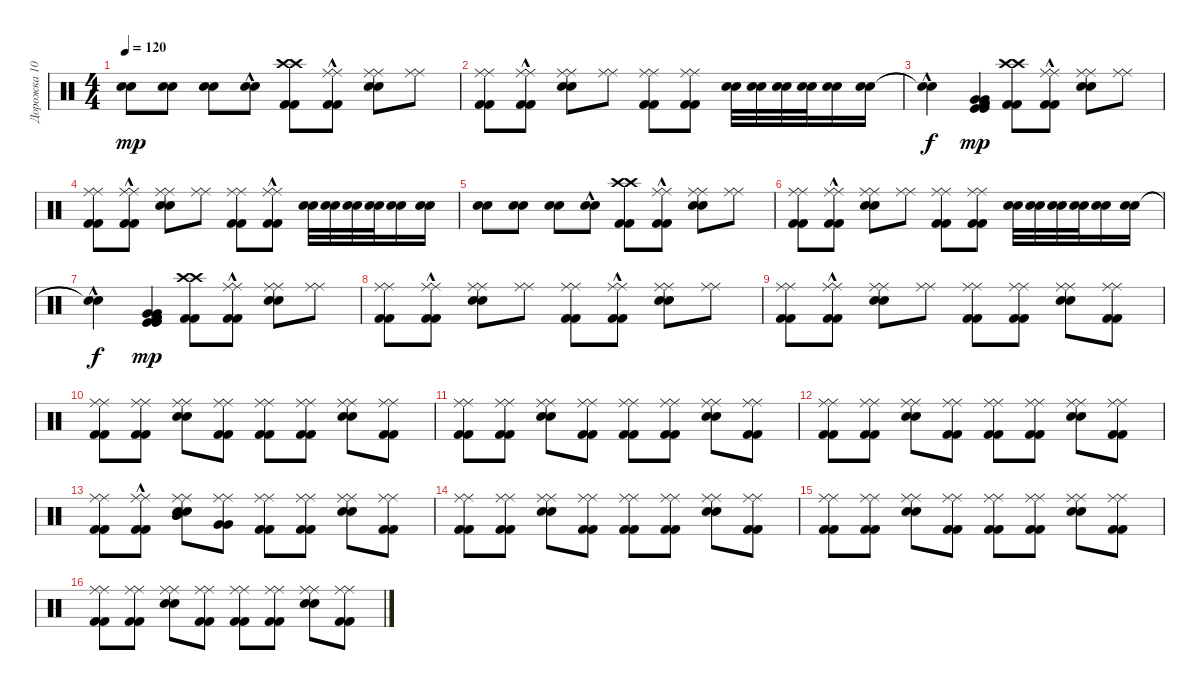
\track ("Дорожка 10" "Дорожка 10") {instrument percussion}
\staff {score}
\articulation defaults
\ts (4 4)
\tempo 120
\clef neutral
\ks c
("Snare (hit) 2" "Snare (hit) 2").8{dy mp} ("Snare (hit) 2" "Snare (hit) 2").8 ("Snare (hit) 2" "Snare (hit) 2").8 ("Snare (hit) 2"{hac} "Snare (hit) 2"{hac}).8 ("Kick (hit) 2" "Crash high (hit)" "Kick (hit) 2" "Crash high (hit)").8 ("Kick (hit) 2"{hac} "Ride (middle)" "Kick (hit) 2"{hac} "Ride (middle)").8 ("Snare (hit) 2" "Ride (middle)" "Snare (hit) 2" "Ride (middle)").8 ("Ride (middle)" "Ride (middle)").8 |
("Kick (hit) 2" "Ride (middle)" "Kick (hit) 2" "Ride (middle)").8 ("Kick (hit) 2"{hac} "Ride (middle)" "Kick (hit) 2"{hac} "Ride (middle)").8 ("Snare (hit) 2" "Ride (middle)" "Snare (hit) 2" "Ride (middle)").8 ("Ride (middle)" "Ride (middle)").8 ("Kick (hit) 2" "Ride (middle)" "Kick (hit) 2" "Ride (middle)").8 ("Kick (hit) 2" "Ride (middle)" "Kick (hit) 2" "Ride (middle)").8 ("Snare (hit) 2" "Snare (hit) 2").32 ("Snare (hit) 2" "Snare (hit) 2").32 ("Snare (hit) 2" "Snare (hit) 2").32 ("Snare (hit) 2" "Snare (hit) 2").32 ("Snare (hit) 2" "Snare (hit) 2").16 ("Snare (hit) 2" "Snare (hit) 2").16 |
("Snare (hit)"{hac t} "Snare (hit)"{hac t}).4{dy f} ("Kick (hit)" "Kick (hit) 2" "Very Low Tom (hit)" "Kick (hit)" "Kick (hit) 2" "Very Low Tom (hit)").4{dy mp} ("Kick (hit) 2" "Crash high (hit)" "Kick (hit) 2" "Crash high (hit)").8 ("Kick (hit) 2"{hac} "Ride (middle)" "Kick (hit) 2"{hac} "Ride (middle)").8 ("Snare (hit) 2" "Ride (middle)" "Snare (hit) 2" "Ride (middle)").8 ("Ride (middle)" "Ride (middle)").8 |
("Kick (hit) 2" "Ride (middle)" "Kick (hit) 2" "Ride (middle)").8 ("Kick (hit) 2"{hac} "Ride (middle)" "Kick (hit) 2"{hac} "Ride (middle)").8 ("Snare (hit) 2" "Ride (middle)" "Snare (hit) 2" "Ride (middle)").8 ("Ride (middle)" "Ride (middle)").8 ("Kick (hit) 2" "Ride (middle)" "Kick (hit) 2" "Ride (middle)").8 ("Kick (hit) 2"{hac} "Ride (middle)" "Kick (hit) 2"{hac} "Ride (middle)").8 ("Snare (hit) 2" "Snare (hit) 2").32 ("Snare (hit) 2" "Snare (hit) 2").32 ("Snare (hit) 2" "Snare (hit) 2").32 ("Snare (hit) 2" "Snare (hit) 2").32 ("Snare (hit) 2" "Snare (hit) 2").16 ("Snare (hit) 2" "Snare (hit) 2").16 |
("Snare (hit) 2" "Snare (hit) 2").8 ("Snare (hit) 2" "Snare (hit) 2").8 ("Snare (hit) 2" "Snare (hit) 2").8 ("Snare (hit) 2"{hac} "Snare (hit) 2"{hac}).8 ("Kick (hit) 2" "Crash high (hit)" "Kick (hit) 2" "Crash high (hit)").8 ("Kick (hit) 2"{hac} "Ride (middle)" "Kick (hit) 2"{hac} "Ride (middle)").8 ("Snare (hit) 2" "Ride (middle)" "Snare (hit) 2" "Ride (middle)").8 ("Ride (middle)" "Ride (middle)").8 |
("Kick (hit) 2" "Ride (middle)" "Kick (hit) 2" "Ride (middle)").8 ("Kick (hit) 2"{hac} "Ride (middle)" "Kick (hit) 2"{hac} "Ride (middle)").8 ("Snare (hit) 2" "Ride (middle)" "Snare (hit) 2" "Ride (middle)").8 ("Ride (middle)" "Ride (middle)").8 ("Kick (hit) 2" "Ride (middle)" "Kick (hit) 2" "Ride (middle)").8 ("Kick (hit) 2" "Ride (middle)" "Kick (hit) 2" "Ride (middle)").8 ("Snare (hit) 2" "Snare (hit) 2").32 ("Snare (hit) 2" "Snare (hit) 2").32 ("Snare (hit) 2" "Snare (hit) 2").32 ("Snare (hit) 2" "Snare (hit) 2").32 ("Snare (hit) 2" "Snare (hit) 2").16 ("Snare (hit) 2" "Snare (hit) 2").16 |
("Snare (hit)"{hac t} "Snare (hit)"{hac t}).4{dy f} ("Kick (hit)" "Kick (hit) 2" "Very Low Tom (hit)" "Kick (hit)" "Kick (hit) 2" "Very Low Tom (hit)").4{dy mp} ("Kick (hit) 2" "Crash high (hit)" "Kick (hit) 2" "Crash high (hit)").8 ("Kick (hit) 2"{hac} "Ride (middle)" "Kick (hit) 2"{hac} "Ride (middle)").8 ("Snare (hit) 2" "Ride (middle)" "Snare (hit) 2" "Ride (middle)").8 ("Ride (middle)" "Ride (middle)").8 |
("Kick (hit) 2" "Ride (middle)" "Kick (hit) 2" "Ride (middle)").8 ("Kick (hit) 2"{hac} "Ride (middle)" "Kick (hit) 2"{hac} "Ride (middle)").8 ("Snare (hit) 2" "Ride (middle)" "Snare (hit) 2" "Ride (middle)").8 ("Ride (middle)" "Ride (middle)").8 ("Kick (hit) 2" "Ride (middle)" "Kick (hit) 2" "Ride (middle)").8 ("Kick (hit) 2"{hac} "Ride (middle)" "Kick (hit) 2"{hac} "Ride (middle)").8 ("Snare (hit) 2" "Ride (middle)" "Snare (hit) 2" "Ride (middle)").8 ("Ride (middle)" "Ride (middle)").8 |
("Kick (hit) 2" "Ride (middle)" "Kick (hit) 2" "Ride (middle)").8 ("Kick (hit) 2"{hac} "Ride (middle)" "Kick (hit) 2"{hac} "Ride (middle)").8 ("Snare (hit) 2" "Ride (middle)" "Snare (hit) 2" "Ride (middle)").8 ("Ride (middle)" "Ride (middle)").8 ("Kick (hit) 2" "Ride (middle)" "Kick (hit) 2" "Ride (middle)").8 ("Kick (hit) 2" "Ride (middle)" "Kick (hit) 2" "Ride (middle)").8 ("Snare (hit) 2" "Ride (middle)" "Snare (hit) 2" "Ride (middle)").8 ("Kick (hit) 2" "Ride (middle)" "Kick (hit) 2" "Ride (middle)").8 |
("Kick (hit) 2" "Ride (middle)" "Kick (hit) 2" "Ride (middle)").8 ("Kick (hit) 2" "Ride (middle)" "Kick (hit) 2" "Ride (middle)").8 ("Snare (hit) 2" "Ride (middle)" "Snare (hit) 2" "Ride (middle)").8 ("Kick (hit) 2" "Ride (middle)" "Kick (hit) 2" "Ride (middle)").8 ("Kick (hit) 2" "Ride (middle)" "Kick (hit) 2" "Ride (middle)").8 ("Kick (hit) 2" "Ride (middle)" "Kick (hit) 2" "Ride (middle)").8 ("Snare (hit) 2" "Ride (middle)" "Snare (hit) 2" "Ride (middle)").8 ("Kick (hit) 2" "Ride (middle)" "Kick (hit) 2" "Ride (middle)").8 |
("Kick (hit) 2" "Ride (middle)" "Kick (hit) 2" "Ride (middle)").8 ("Kick (hit) 2" "Ride (middle)" "Kick (hit) 2" "Ride (middle)").8 ("Snare (hit) 2" "Ride (middle)" "Snare (hit) 2" "Ride (middle)").8 ("Kick (hit) 2" "Ride (middle)" "Kick (hit) 2" "Ride (middle)").8 ("Kick (hit) 2" "Ride (middle)" "Kick (hit) 2" "Ride (middle)").8 ("Kick (hit) 2" "Ride (middle)" "Kick (hit) 2" "Ride (middle)").8 ("Snare (hit) 2" "Ride (middle)" "Snare (hit) 2" "Ride (middle)").8 ("Kick (hit) 2" "Ride (middle)" "Kick (hit) 2" "Ride (middle)").8 |
("Kick (hit) 2" "Ride (middle)" "Kick (hit) 2" "Ride (middle)").8 ("Kick (hit) 2" "Ride (middle)" "Kick (hit) 2" "Ride (middle)").8 ("Snare (hit) 2" "Ride (middle)" "Snare (hit) 2" "Ride (middle)").8 ("Kick (hit) 2" "Ride (middle)" "Kick (hit) 2" "Ride (middle)").8 ("Kick (hit) 2" "Ride (middle)" "Kick (hit) 2" "Ride (middle)").8 ("Kick (hit) 2" "Ride (middle)" "Kick (hit) 2" "Ride (middle)").8 ("Snare (hit) 2" "Ride (middle)" "Snare (hit) 2" "Ride (middle)").8 ("Kick (hit) 2" "Ride (middle)" "Kick (hit) 2" "Ride (middle)").8 |
("Kick (hit) 2" "Ride (middle)" "Kick (hit) 2" "Ride (middle)").8 ("Kick (hit) 2"{hac} "Ride (middle)" "Kick (hit) 2"{hac} "Ride (middle)").8 ("Snare (hit) 2" "Mid Tom (hit)" "Ride (middle)" "Snare (hit) 2" "Mid Tom (hit)" "Ride (middle)").8 ("Very Low Tom (hit)" "Ride (middle)" "Very Low Tom (hit)" "Ride (middle)").8 ("Kick (hit) 2" "Ride (middle)" "Kick (hit) 2" "Ride (middle)").8 ("Kick (hit) 2" "Ride (middle)" "Kick (hit) 2" "Ride (middle)").8 ("Snare (hit) 2" "Ride (middle)" "Snare (hit) 2" "Ride (middle)").8 ("Kick (hit) 2" "Ride (middle)" "Kick (hit) 2" "Ride (middle)").8 |
("Kick (hit) 2" "Ride (middle)" "Kick (hit) 2" "Ride (middle)").8 ("Kick (hit) 2" "Ride (middle)" "Kick (hit) 2" "Ride (middle)").8 ("Snare (hit) 2" "Ride (middle)" "Snare (hit) 2" "Ride (middle)").8 ("Kick (hit) 2" "Ride (middle)" "Kick (hit) 2" "Ride (middle)").8 ("Kick (hit) 2" "Ride (middle)" "Kick (hit) 2" "Ride (middle)").8 ("Kick (hit) 2" "Ride (middle)" "Kick (hit) 2" "Ride (middle)").8 ("Snare (hit) 2" "Ride (middle)" "Snare (hit) 2" "Ride (middle)").8 ("Kick (hit) 2" "Ride (middle)" "Kick (hit) 2" "Ride (middle)").8 |
("Kick (hit) 2" "Ride (middle)" "Kick (hit) 2" "Ride (middle)").8 ("Kick (hit) 2" "Ride (middle)" "Kick (hit) 2" "Ride (middle)").8 ("Snare (hit) 2" "Ride (middle)" "Snare (hit) 2" "Ride (middle)").8 ("Kick (hit) 2" "Ride (middle)" "Kick (hit) 2" "Ride (middle)").8 ("Kick (hit) 2" "Ride (middle)" "Kick (hit) 2" "Ride (middle)").8 ("Kick (hit) 2" "Ride (middle)" "Kick (hit) 2" "Ride (middle)").8 ("Snare (hit) 2" "Ride (middle)" "Snare (hit) 2" "Ride (middle)").8 ("Kick (hit) 2" "Ride (middle)" "Kick (hit) 2" "Ride (middle)").8 |
("Kick (hit) 2" "Ride (middle)" "Kick (hit) 2" "Ride (middle)").8 ("Kick (hit) 2" "Ride (middle)" "Kick (hit) 2" "Ride (middle)").8 ("Snare (hit) 2" "Ride (middle)" "Snare (hit) 2" "Ride (middle)").8 ("Kick (hit) 2" "Ride (middle)" "Kick (hit) 2" "Ride (middle)").8 ("Kick (hit) 2" "Ride (middle)" "Kick (hit) 2" "Ride (middle)").8 ("Kick (hit) 2" "Ride (middle)" "Kick (hit) 2" "Ride (middle)").8 ("Snare (hit) 2" "Ride (middle)" "Snare (hit) 2" "Ride (middle)").8 ("Kick (hit) 2" "Ride (middle)" "Kick (hit) 2" "Ride (middle)").8
